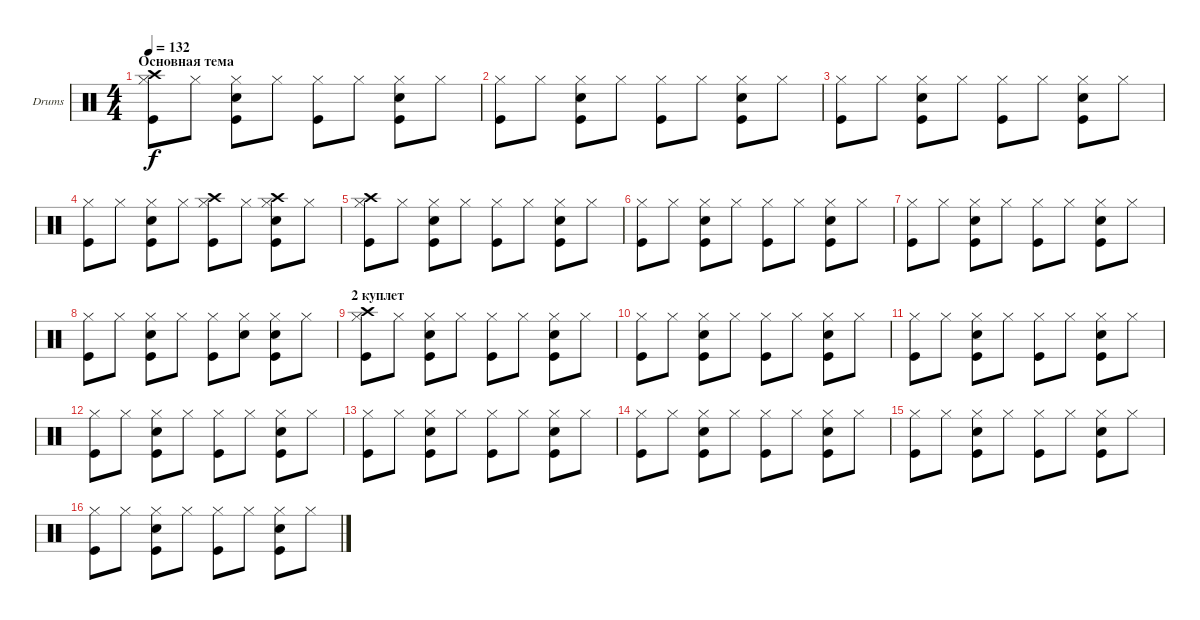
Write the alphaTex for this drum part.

\defaultSystemsLayout 4
\bracketExtendMode groupsimilarinstruments
\firstSystemTrackNameOrientation horizontal
\otherSystemsTrackNameOrientation horizontal
\track ("Drumkit" "Drums") {instrument percussion}
\staff {score}
\articulation defaults
\ts (4 4)
\section ("" "Основная тема")
\tempo 132
\clef neutral
\ks c
("Hi-Hat (closed)" "Kick (hit)" "Crash high (hit)").8{dy f} "Hi-Hat (closed)".8 ("Hi-Hat (closed)" "Kick (hit)" "Snare (hit) 2").8 "Hi-Hat (closed)".8 ("Hi-Hat (closed)" "Kick (hit)").8 "Hi-Hat (closed)".8 ("Hi-Hat (closed)" "Kick (hit)" "Snare (hit) 2").8 "Hi-Hat (closed)".8 |
("Hi-Hat (closed)" "Kick (hit)").8 "Hi-Hat (closed)".8 ("Hi-Hat (closed)" "Kick (hit)" "Snare (hit) 2").8 "Hi-Hat (closed)".8 ("Hi-Hat (closed)" "Kick (hit)").8 "Hi-Hat (closed)".8 ("Hi-Hat (closed)" "Kick (hit)" "Snare (hit) 2").8 "Hi-Hat (closed)".8 |
("Hi-Hat (closed)" "Kick (hit)").8 "Hi-Hat (closed)".8 ("Hi-Hat (closed)" "Kick (hit)" "Snare (hit) 2").8 "Hi-Hat (closed)".8 ("Hi-Hat (closed)" "Kick (hit)").8 "Hi-Hat (closed)".8 ("Hi-Hat (closed)" "Kick (hit)" "Snare (hit) 2").8 "Hi-Hat (closed)".8 |
("Hi-Hat (closed)" "Kick (hit)").8 "Hi-Hat (closed)".8 ("Hi-Hat (closed)" "Kick (hit)" "Snare (hit) 2").8 "Hi-Hat (closed)".8 ("Hi-Hat (closed)" "Kick (hit)" "Crash high (hit)").8 "Hi-Hat (closed)".8 ("Hi-Hat (closed)" "Kick (hit)" "Snare (hit) 2" "Crash high (hit)").8 "Hi-Hat (closed)".8 |
("Hi-Hat (closed)" "Kick (hit)" "Crash high (hit)").8 "Hi-Hat (closed)".8 ("Hi-Hat (closed)" "Kick (hit)" "Snare (hit) 2").8 "Hi-Hat (closed)".8 ("Hi-Hat (closed)" "Kick (hit)").8 "Hi-Hat (closed)".8 ("Hi-Hat (closed)" "Kick (hit)" "Snare (hit) 2").8 "Hi-Hat (closed)".8 |
("Hi-Hat (closed)" "Kick (hit)").8 "Hi-Hat (closed)".8 ("Hi-Hat (closed)" "Kick (hit)" "Snare (hit) 2").8 "Hi-Hat (closed)".8 ("Hi-Hat (closed)" "Kick (hit)").8 "Hi-Hat (closed)".8 ("Hi-Hat (closed)" "Kick (hit)" "Snare (hit) 2").8 "Hi-Hat (closed)".8 |
("Hi-Hat (closed)" "Kick (hit)").8 "Hi-Hat (closed)".8 ("Hi-Hat (closed)" "Kick (hit)" "Snare (hit) 2").8 "Hi-Hat (closed)".8 ("Hi-Hat (closed)" "Kick (hit)").8 "Hi-Hat (closed)".8 ("Hi-Hat (closed)" "Kick (hit)" "Snare (hit) 2").8 "Hi-Hat (closed)".8 |
("Hi-Hat (closed)" "Kick (hit)").8 "Hi-Hat (closed)".8 ("Hi-Hat (closed)" "Kick (hit)" "Snare (hit) 2").8 "Hi-Hat (closed)".8 ("Hi-Hat (closed)" "Kick (hit)").8 ("Hi-Hat (closed)" "Snare (hit) 2").8 ("Hi-Hat (closed)" "Kick (hit)" "Snare (hit) 2").8 "Hi-Hat (closed)".8 |
\section ("" "2 куплет")
("Hi-Hat (closed)" "Kick (hit)" "Crash high (hit)").8 "Hi-Hat (closed)".8 ("Hi-Hat (closed)" "Kick (hit)" "Snare (hit) 2").8 "Hi-Hat (closed)".8 ("Hi-Hat (closed)" "Kick (hit)").8 "Hi-Hat (closed)".8 ("Hi-Hat (closed)" "Kick (hit)" "Snare (hit) 2").8 "Hi-Hat (closed)".8 |
("Hi-Hat (closed)" "Kick (hit)").8 "Hi-Hat (closed)".8 ("Hi-Hat (closed)" "Kick (hit)" "Snare (hit) 2").8 "Hi-Hat (closed)".8 ("Hi-Hat (closed)" "Kick (hit)").8 "Hi-Hat (closed)".8 ("Hi-Hat (closed)" "Kick (hit)" "Snare (hit) 2").8 "Hi-Hat (closed)".8 |
("Hi-Hat (closed)" "Kick (hit)").8 "Hi-Hat (closed)".8 ("Hi-Hat (closed)" "Kick (hit)" "Snare (hit) 2").8 "Hi-Hat (closed)".8 ("Hi-Hat (closed)" "Kick (hit)").8 "Hi-Hat (closed)".8 ("Hi-Hat (closed)" "Kick (hit)" "Snare (hit) 2").8 "Hi-Hat (closed)".8 |
("Hi-Hat (closed)" "Kick (hit)").8 "Hi-Hat (closed)".8 ("Hi-Hat (closed)" "Kick (hit)" "Snare (hit) 2").8 "Hi-Hat (closed)".8 ("Hi-Hat (closed)" "Kick (hit)").8 "Hi-Hat (closed)".8 ("Hi-Hat (closed)" "Kick (hit)" "Snare (hit) 2").8 "Hi-Hat (closed)".8 |
("Hi-Hat (closed)" "Kick (hit)").8 "Hi-Hat (closed)".8 ("Hi-Hat (closed)" "Kick (hit)" "Snare (hit) 2").8 "Hi-Hat (closed)".8 ("Hi-Hat (closed)" "Kick (hit)").8 "Hi-Hat (closed)".8 ("Hi-Hat (closed)" "Kick (hit)" "Snare (hit) 2").8 "Hi-Hat (closed)".8 |
("Hi-Hat (closed)" "Kick (hit)").8 "Hi-Hat (closed)".8 ("Hi-Hat (closed)" "Kick (hit)" "Snare (hit) 2").8 "Hi-Hat (closed)".8 ("Hi-Hat (closed)" "Kick (hit)").8 "Hi-Hat (closed)".8 ("Hi-Hat (closed)" "Kick (hit)" "Snare (hit) 2").8 "Hi-Hat (closed)".8 |
("Hi-Hat (closed)" "Kick (hit)").8 "Hi-Hat (closed)".8 ("Hi-Hat (closed)" "Kick (hit)" "Snare (hit) 2").8 "Hi-Hat (closed)".8 ("Hi-Hat (closed)" "Kick (hit)").8 "Hi-Hat (closed)".8 ("Hi-Hat (closed)" "Kick (hit)" "Snare (hit) 2").8 "Hi-Hat (closed)".8 |
("Hi-Hat (closed)" "Kick (hit)").8 "Hi-Hat (closed)".8 ("Hi-Hat (closed)" "Kick (hit)" "Snare (hit) 2").8 "Hi-Hat (closed)".8 ("Hi-Hat (closed)" "Kick (hit)").8 "Hi-Hat (closed)".8 ("Hi-Hat (closed)" "Kick (hit)" "Snare (hit) 2").8 "Hi-Hat (closed)".8
